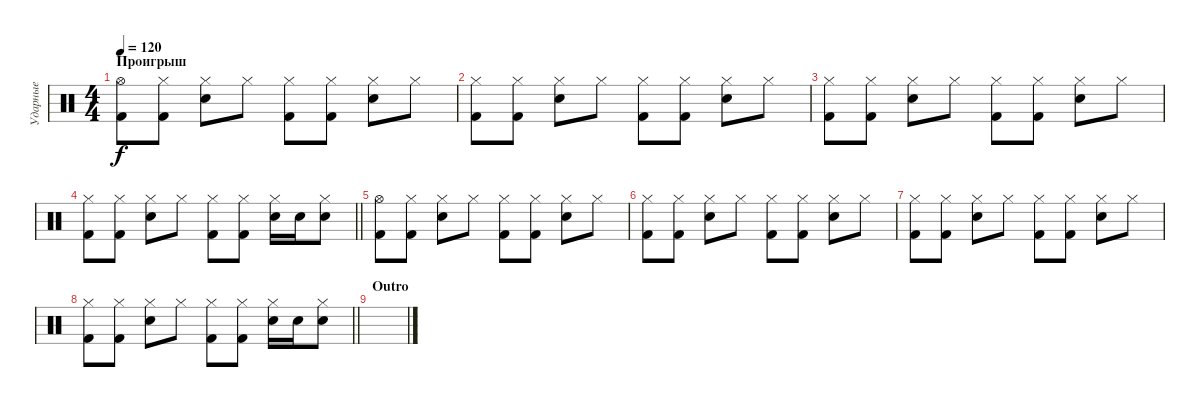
\track ("Ударные" "Ударные") {instrument percussion}
\staff {score}
\articulation defaults
\ts (4 4)
\section ("" "Проигрыш")
\tempo 120
\clef neutral
\ks c
("Hi-Hat (open)" "Kick (hit) 2").8{dy f} ("Hi-Hat (closed)" "Kick (hit) 2").8 ("Hi-Hat (closed)" "Electric Snare (hit)").8 "Hi-Hat (closed)".8 ("Hi-Hat (closed)" "Kick (hit) 2").8 ("Hi-Hat (closed)" "Kick (hit) 2").8 ("Hi-Hat (closed)" "Electric Snare (hit)").8 "Hi-Hat (closed)".8 |
("Hi-Hat (closed)" "Kick (hit) 2").8 ("Hi-Hat (closed)" "Kick (hit) 2").8 ("Hi-Hat (closed)" "Electric Snare (hit)").8 "Hi-Hat (closed)".8 ("Hi-Hat (closed)" "Kick (hit) 2").8 ("Hi-Hat (closed)" "Kick (hit) 2").8 ("Hi-Hat (closed)" "Electric Snare (hit)").8 "Hi-Hat (closed)".8 |
("Hi-Hat (closed)" "Kick (hit) 2").8 ("Hi-Hat (closed)" "Kick (hit) 2").8 ("Hi-Hat (closed)" "Electric Snare (hit)").8 "Hi-Hat (closed)".8 ("Hi-Hat (closed)" "Kick (hit) 2").8 ("Hi-Hat (closed)" "Kick (hit) 2").8 ("Hi-Hat (closed)" "Electric Snare (hit)").8 "Hi-Hat (closed)".8 |
\barLineRight lightlight
("Hi-Hat (closed)" "Kick (hit) 2").8 ("Hi-Hat (closed)" "Kick (hit) 2").8 ("Hi-Hat (closed)" "Electric Snare (hit)").8 "Hi-Hat (closed)".8 ("Hi-Hat (closed)" "Kick (hit) 2").8 ("Hi-Hat (closed)" "Kick (hit) 2").8 ("Hi-Hat (closed)" "Electric Snare (hit)").16 "Snare (hit) 2".16 ("Hi-Hat (closed)" "Electric Snare (hit)").8 |
\section ("" "")
("Hi-Hat (open)" "Kick (hit) 2").8 ("Hi-Hat (closed)" "Kick (hit) 2").8 ("Hi-Hat (closed)" "Electric Snare (hit)").8 "Hi-Hat (closed)".8 ("Hi-Hat (closed)" "Kick (hit) 2").8 ("Hi-Hat (closed)" "Kick (hit) 2").8 ("Hi-Hat (closed)" "Electric Snare (hit)").8 "Hi-Hat (closed)".8 |
("Hi-Hat (closed)" "Kick (hit) 2").8 ("Hi-Hat (closed)" "Kick (hit) 2").8 ("Hi-Hat (closed)" "Electric Snare (hit)").8 "Hi-Hat (closed)".8 ("Hi-Hat (closed)" "Kick (hit) 2").8 ("Hi-Hat (closed)" "Kick (hit) 2").8 ("Hi-Hat (closed)" "Electric Snare (hit)").8 "Hi-Hat (closed)".8 |
("Hi-Hat (closed)" "Kick (hit) 2").8 ("Hi-Hat (closed)" "Kick (hit) 2").8 ("Hi-Hat (closed)" "Electric Snare (hit)").8 "Hi-Hat (closed)".8 ("Hi-Hat (closed)" "Kick (hit) 2").8 ("Hi-Hat (closed)" "Kick (hit) 2").8 ("Hi-Hat (closed)" "Electric Snare (hit)").8 "Hi-Hat (closed)".8 |
\barLineRight lightlight
("Hi-Hat (closed)" "Kick (hit) 2").8 ("Hi-Hat (closed)" "Kick (hit) 2").8 ("Hi-Hat (closed)" "Electric Snare (hit)").8 "Hi-Hat (closed)".8 ("Hi-Hat (closed)" "Kick (hit) 2").8 ("Hi-Hat (closed)" "Kick (hit) 2").8 ("Hi-Hat (closed)" "Electric Snare (hit)").16 "Snare (hit) 2".16 ("Hi-Hat (closed)" "Electric Snare (hit)").8 |
\section ("" "Outro")
